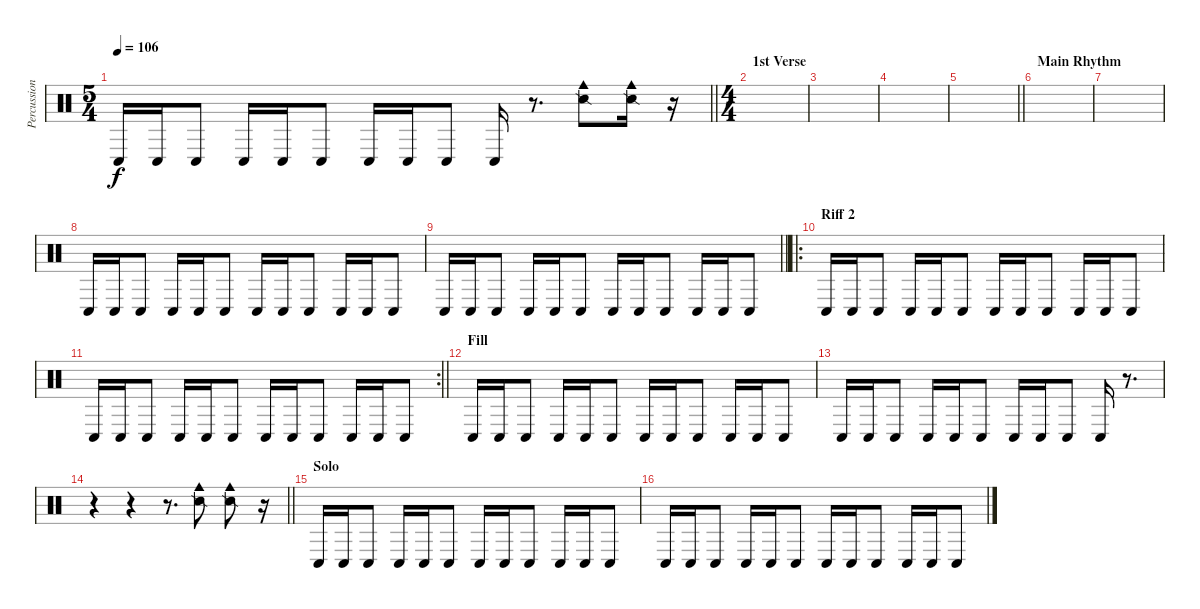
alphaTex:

\track ("Percussion 2" "Percussion") {instrument percussion}
\staff {score}
\articulation defaults
\ts (5 4)
\tempo 106
\clef neutral
\barLineRight lightlight
\ks c "Conga low (hit)".16{dy f} "Conga low (hit)".16 "Conga low (hit)".8 "Conga low (hit)".16 "Conga low (hit)".16 "Conga low (hit)".8 "Conga low (hit)".16 "Conga low (hit)".16 "Conga low (hit)".8 "Conga low (hit)".16
r.8{d} ("Cowbell medium (hit)" "Snare (side stick) 2").8 ("Cowbell medium (hit)" "Snare (side stick) 2").16 r.16 |
\ts (4 4)
\section ("" "1st Verse")
|
|
|
\barLineRight lightlight
|
\section ("" "Main Rhythm")
|
|
"Conga low (hit)".16 "Conga low (hit)".16 "Conga low (hit)".8 "Conga low (hit)".16 "Conga low (hit)".16 "Conga low (hit)".8 "Conga low (hit)".16 "Conga low (hit)".16 "Conga low (hit)".8 "Conga low (hit)".16 "Conga low (hit)".16 "Conga low (hit)".8 |
\barLineRight lightlight "Conga low (hit)".16 "Conga low (hit)".16 "Conga low (hit)".8 "Conga low (hit)".16 "Conga low (hit)".16 "Conga low (hit)".8 "Conga low (hit)".16 "Conga low (hit)".16 "Conga low (hit)".8 "Conga low (hit)".16 "Conga low (hit)".16 "Conga low (hit)".8
|
\ro
\section ("" "Riff 2")
"Conga low (hit)".16 "Conga low (hit)".16 "Conga low (hit)".8 "Conga low (hit)".16 "Conga low (hit)".16 "Conga low (hit)".8 "Conga low (hit)".16 "Conga low (hit)".16 "Conga low (hit)".8 "Conga low (hit)".16 "Conga low (hit)".16 "Conga low (hit)".8 |
\rc 2
\barLineRight lightlight "Conga low (hit)".16 "Conga low (hit)".16 "Conga low (hit)".8 "Conga low (hit)".16 "Conga low (hit)".16 "Conga low (hit)".8 "Conga low (hit)".16 "Conga low (hit)".16 "Conga low (hit)".8 "Conga low (hit)".16 "Conga low (hit)".16 "Conga low (hit)".8
|
\section ("" "Fill")
"Conga low (hit)".16 "Conga low (hit)".16 "Conga low (hit)".8 "Conga low (hit)".16 "Conga low (hit)".16 "Conga low (hit)".8 "Conga low (hit)".16 "Conga low (hit)".16 "Conga low (hit)".8 "Conga low (hit)".16 "Conga low (hit)".16 "Conga low (hit)".8 |
"Conga low (hit)".16 "Conga low (hit)".16 "Conga low (hit)".8 "Conga low (hit)".16 "Conga low (hit)".16 "Conga low (hit)".8 "Conga low (hit)".16 "Conga low (hit)".16 "Conga low (hit)".8 "Conga low (hit)".16 r.8{d} |
\barLineRight lightlight
r.4 r.4 r.8{d} ("Cowbell medium (hit)" "Snare (side stick) 2").8 ("Cowbell medium (hit)" "Snare (side stick) 2").8 r.16 |
\section ("" "Solo")
"Conga low (hit)".16 "Conga low (hit)".16 "Conga low (hit)".8 "Conga low (hit)".16 "Conga low (hit)".16 "Conga low (hit)".8 "Conga low (hit)".16 "Conga low (hit)".16 "Conga low (hit)".8 "Conga low (hit)".16 "Conga low (hit)".16 "Conga low (hit)".8 |
"Conga low (hit)".16 "Conga low (hit)".16 "Conga low (hit)".8 "Conga low (hit)".16 "Conga low (hit)".16 "Conga low (hit)".8 "Conga low (hit)".16 "Conga low (hit)".16 "Conga low (hit)".8 "Conga low (hit)".16 "Conga low (hit)".16 "Conga low (hit)".8
